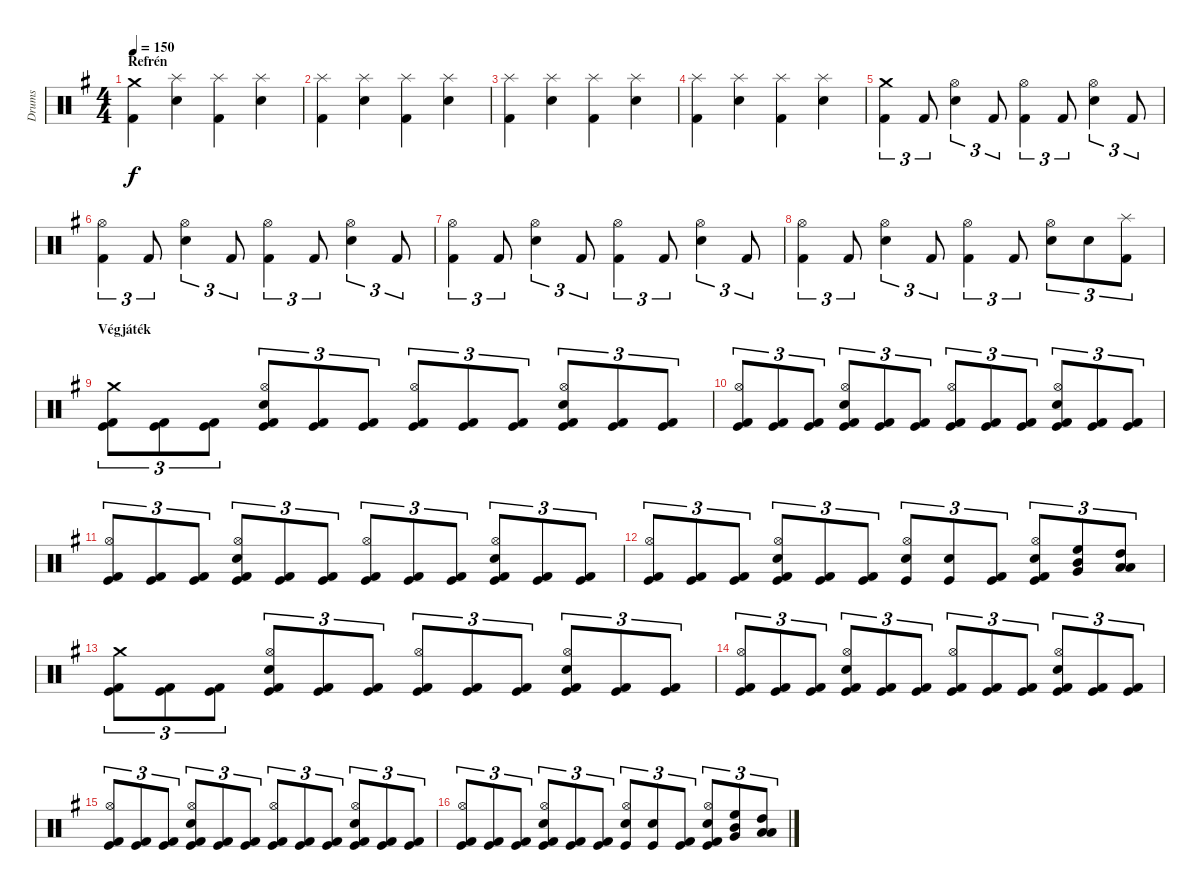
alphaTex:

\track ("Drums" "Drums") {instrument percussion}
\staff {score}
\articulation defaults
\ts (4 4)
\section ("" "Refrén")
\tempo 150
\clef neutral
\ks eminor
("Crash medium (hit)" "Kick (hit) 2").4{dy f} ("Splash (hit)" "Snare (hit) 2").4 ("Splash (hit)" "Kick (hit) 2").4 ("Splash (hit)" "Snare (hit) 2").4 |
("Splash (hit)" "Kick (hit) 2").4 ("Splash (hit)" "Snare (hit) 2").4 ("Splash (hit)" "Kick (hit) 2").4 ("Splash (hit)" "Snare (hit) 2").4 |
("Splash (hit)" "Kick (hit) 2").4 ("Splash (hit)" "Snare (hit) 2").4 ("Splash (hit)" "Kick (hit) 2").4 ("Splash (hit)" "Snare (hit) 2").4 |
("Splash (hit)" "Kick (hit) 2").4 ("Splash (hit)" "Snare (hit) 2").4 ("Splash (hit)" "Kick (hit) 2").4 ("Splash (hit)" "Snare (hit) 2").4 |
("Crash medium (hit)" "Kick (hit) 2").4{tu (3 2)} "Kick (hit) 2".8{tu (3 2)} ("Hi-Hat (open)" "Snare (hit) 2").4{tu (3 2)} "Kick (hit) 2".8{tu (3 2)} ("Hi-Hat (open)" "Kick (hit) 2").4{tu (3 2)} "Kick (hit) 2".8{tu (3 2)} ("Hi-Hat (open)" "Snare (hit) 2").4{tu (3 2)} "Kick (hit) 2".8{tu (3 2)} |
("Hi-Hat (open)" "Kick (hit) 2").4{tu (3 2)} "Kick (hit) 2".8{tu (3 2)} ("Hi-Hat (open)" "Snare (hit) 2").4{tu (3 2)} "Kick (hit) 2".8{tu (3 2)} ("Hi-Hat (open)" "Kick (hit) 2").4{tu (3 2)} "Kick (hit) 2".8{tu (3 2)} ("Hi-Hat (open)" "Snare (hit) 2").4{tu (3 2)} "Kick (hit) 2".8{tu (3 2)} |
("Hi-Hat (open)" "Kick (hit) 2").4{tu (3 2)} "Kick (hit) 2".8{tu (3 2)} ("Hi-Hat (open)" "Snare (hit) 2").4{tu (3 2)} "Kick (hit) 2".8{tu (3 2)} ("Hi-Hat (open)" "Kick (hit) 2").4{tu (3 2)} "Kick (hit) 2".8{tu (3 2)} ("Hi-Hat (open)" "Snare (hit) 2").4{tu (3 2)} "Kick (hit) 2".8{tu (3 2)} |
("Hi-Hat (open)" "Kick (hit) 2").4{tu (3 2)} "Kick (hit) 2".8{tu (3 2)} ("Hi-Hat (open)" "Snare (hit) 2").4{tu (3 2)} "Kick (hit) 2".8{tu (3 2)} ("Hi-Hat (open)" "Kick (hit) 2").4{tu (3 2)} "Kick (hit) 2".8{tu (3 2)} ("Hi-Hat (open)" "Snare (hit) 2").8{tu (3 2)} "Snare (hit) 2".8{tu (3 2)} ("Splash (hit)" "Kick (hit) 2").8{tu (3 2)} |
\section ("" "Végjáték")
("Crash medium (hit)" "Kick (hit)" "Kick (hit) 2").8{tu (3 2)} ("Kick (hit)" "Kick (hit) 2").8{tu (3 2)} ("Kick (hit)" "Kick (hit) 2").8{tu (3 2)} ("Hi-Hat (open)" "Snare (hit) 2" "Kick (hit)" "Kick (hit) 2").8{tu (3 2)} ("Kick (hit)" "Kick (hit) 2").8{tu (3 2)} ("Kick (hit)" "Kick (hit) 2").8{tu (3 2)} ("Hi-Hat (open)" "Kick (hit)" "Kick (hit) 2").8{tu (3 2)} ("Kick (hit)" "Kick (hit) 2").8{tu (3 2)} ("Kick (hit)" "Kick (hit) 2").8{tu (3 2)} ("Hi-Hat (open)" "Snare (hit) 2" "Kick (hit)" "Kick (hit) 2").8{tu (3 2)} ("Kick (hit)" "Kick (hit) 2").8{tu (3 2)} ("Kick (hit)" "Kick (hit) 2").8{tu (3 2)} |
("Hi-Hat (open)" "Kick (hit)" "Kick (hit) 2").8{tu (3 2)} ("Kick (hit)" "Kick (hit) 2").8{tu (3 2)} ("Kick (hit)" "Kick (hit) 2").8{tu (3 2)} ("Hi-Hat (open)" "Snare (hit) 2" "Kick (hit)" "Kick (hit) 2").8{tu (3 2)} ("Kick (hit)" "Kick (hit) 2").8{tu (3 2)} ("Kick (hit)" "Kick (hit) 2").8{tu (3 2)} ("Hi-Hat (open)" "Kick (hit)" "Kick (hit) 2").8{tu (3 2)} ("Kick (hit)" "Kick (hit) 2").8{tu (3 2)} ("Kick (hit)" "Kick (hit) 2").8{tu (3 2)} ("Hi-Hat (open)" "Snare (hit) 2" "Kick (hit)" "Kick (hit) 2").8{tu (3 2)} ("Kick (hit)" "Kick (hit) 2").8{tu (3 2)} ("Kick (hit)" "Kick (hit) 2").8{tu (3 2)} |
("Hi-Hat (open)" "Kick (hit)" "Kick (hit) 2").8{tu (3 2)} ("Kick (hit)" "Kick (hit) 2").8{tu (3 2)} ("Kick (hit)" "Kick (hit) 2").8{tu (3 2)} ("Hi-Hat (open)" "Snare (hit) 2" "Kick (hit)" "Kick (hit) 2").8{tu (3 2)} ("Kick (hit)" "Kick (hit) 2").8{tu (3 2)} ("Kick (hit)" "Kick (hit) 2").8{tu (3 2)} ("Hi-Hat (open)" "Kick (hit)" "Kick (hit) 2").8{tu (3 2)} ("Kick (hit)" "Kick (hit) 2").8{tu (3 2)} ("Kick (hit)" "Kick (hit) 2").8{tu (3 2)} ("Hi-Hat (open)" "Snare (hit) 2" "Kick (hit)" "Kick (hit) 2").8{tu (3 2)} ("Kick (hit)" "Kick (hit) 2").8{tu (3 2)} ("Kick (hit)" "Kick (hit) 2").8{tu (3 2)} |
("Hi-Hat (open)" "Kick (hit)" "Kick (hit) 2").8{tu (3 2)} ("Kick (hit)" "Kick (hit) 2").8{tu (3 2)} ("Kick (hit)" "Kick (hit) 2").8{tu (3 2)} ("Hi-Hat (open)" "Snare (hit) 2" "Kick (hit)" "Kick (hit) 2").8{tu (3 2)} ("Kick (hit)" "Kick (hit) 2").8{tu (3 2)} ("Kick (hit)" "Kick (hit) 2").8{tu (3 2)} ("Hi-Hat (open)" "Snare (hit) 2" "Kick (hit)").8{tu (3 2)} ("Snare (hit) 2" "Kick (hit)").8{tu (3 2)} ("Kick (hit)" "Kick (hit) 2").8{tu (3 2)} ("Hi-Hat (open)" "Snare (hit) 2" "Kick (hit)" "Kick (hit) 2").8{tu (3 2)} ("High Floor Tom (hit)" "Mid Tom (hit)" "Very Low Tom (hit)").8{tu (3 2)} ("High Tom (hit)" "Low Tom (hit)" "Low Floor Tom (hit)").8{tu (3 2)} |
("Crash medium (hit)" "Kick (hit)" "Kick (hit) 2").8{tu (3 2)} ("Kick (hit)" "Kick (hit) 2").8{tu (3 2)} ("Kick (hit)" "Kick (hit) 2").8{tu (3 2)} ("Hi-Hat (open)" "Snare (hit) 2" "Kick (hit)" "Kick (hit) 2").8{tu (3 2)} ("Kick (hit)" "Kick (hit) 2").8{tu (3 2)} ("Kick (hit)" "Kick (hit) 2").8{tu (3 2)} ("Hi-Hat (open)" "Kick (hit)" "Kick (hit) 2").8{tu (3 2)} ("Kick (hit)" "Kick (hit) 2").8{tu (3 2)} ("Kick (hit)" "Kick (hit) 2").8{tu (3 2)} ("Hi-Hat (open)" "Snare (hit) 2" "Kick (hit)" "Kick (hit) 2").8{tu (3 2)} ("Kick (hit)" "Kick (hit) 2").8{tu (3 2)} ("Kick (hit)" "Kick (hit) 2").8{tu (3 2)} |
("Hi-Hat (open)" "Kick (hit)" "Kick (hit) 2").8{tu (3 2)} ("Kick (hit)" "Kick (hit) 2").8{tu (3 2)} ("Kick (hit)" "Kick (hit) 2").8{tu (3 2)} ("Hi-Hat (open)" "Snare (hit) 2" "Kick (hit)" "Kick (hit) 2").8{tu (3 2)} ("Kick (hit)" "Kick (hit) 2").8{tu (3 2)} ("Kick (hit)" "Kick (hit) 2").8{tu (3 2)} ("Hi-Hat (open)" "Kick (hit)" "Kick (hit) 2").8{tu (3 2)} ("Kick (hit)" "Kick (hit) 2").8{tu (3 2)} ("Kick (hit)" "Kick (hit) 2").8{tu (3 2)} ("Hi-Hat (open)" "Snare (hit) 2" "Kick (hit)" "Kick (hit) 2").8{tu (3 2)} ("Kick (hit)" "Kick (hit) 2").8{tu (3 2)} ("Kick (hit)" "Kick (hit) 2").8{tu (3 2)} |
("Hi-Hat (open)" "Kick (hit)" "Kick (hit) 2").8{tu (3 2)} ("Kick (hit)" "Kick (hit) 2").8{tu (3 2)} ("Kick (hit)" "Kick (hit) 2").8{tu (3 2)} ("Hi-Hat (open)" "Snare (hit) 2" "Kick (hit)" "Kick (hit) 2").8{tu (3 2)} ("Kick (hit)" "Kick (hit) 2").8{tu (3 2)} ("Kick (hit)" "Kick (hit) 2").8{tu (3 2)} ("Hi-Hat (open)" "Kick (hit)" "Kick (hit) 2").8{tu (3 2)} ("Kick (hit)" "Kick (hit) 2").8{tu (3 2)} ("Kick (hit)" "Kick (hit) 2").8{tu (3 2)} ("Hi-Hat (open)" "Snare (hit) 2" "Kick (hit)" "Kick (hit) 2").8{tu (3 2)} ("Kick (hit)" "Kick (hit) 2").8{tu (3 2)} ("Kick (hit)" "Kick (hit) 2").8{tu (3 2)} |
("Hi-Hat (open)" "Kick (hit)" "Kick (hit) 2").8{tu (3 2)} ("Kick (hit)" "Kick (hit) 2").8{tu (3 2)} ("Kick (hit)" "Kick (hit) 2").8{tu (3 2)} ("Hi-Hat (open)" "Snare (hit) 2" "Kick (hit)" "Kick (hit) 2").8{tu (3 2)} ("Kick (hit)" "Kick (hit) 2").8{tu (3 2)} ("Kick (hit)" "Kick (hit) 2").8{tu (3 2)} ("Hi-Hat (open)" "Snare (hit) 2" "Kick (hit)").8{tu (3 2)} ("Snare (hit) 2" "Kick (hit)").8{tu (3 2)} ("Kick (hit)" "Kick (hit) 2").8{tu (3 2)} ("Hi-Hat (open)" "Snare (hit) 2" "Kick (hit)" "Kick (hit) 2").8{tu (3 2)} ("High Floor Tom (hit)" "Mid Tom (hit)" "Very Low Tom (hit)").8{tu (3 2)} ("High Tom (hit)" "Low Tom (hit)" "Low Floor Tom (hit)").8{tu (3 2)}
